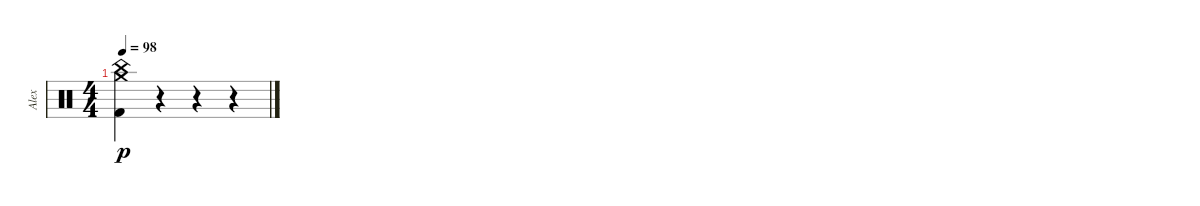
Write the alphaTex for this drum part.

\track ("Alex" "Alex") {instrument percussion}
\staff {score}
\articulation defaults
\ts (4 4)
\tempo 98
\clef neutral
\ks c
("China (hit)" "Crash medium (hit)" "Kick (hit) 2").4{dy p} r.4 r.4 r.4
